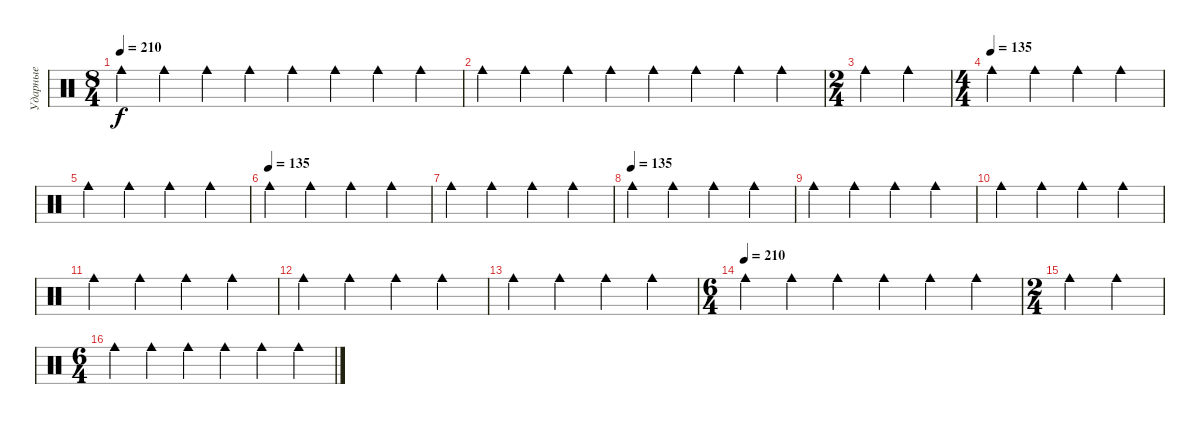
\track ("Ударные" "Ударные") {mute instrument percussion}
\staff {score}
\articulation defaults
\ts (8 4)
\tempo 210
\clef neutral
\ks c "Cowbell medium (hit)".4{dy f} "Cowbell medium (hit)".4 "Cowbell medium (hit)".4 "Cowbell medium (hit)".4 "Cowbell medium (hit)".4 "Cowbell medium (hit)".4 "Cowbell medium (hit)".4 "Cowbell medium (hit)".4
|
"Cowbell medium (hit)".4 "Cowbell medium (hit)".4 "Cowbell medium (hit)".4 "Cowbell medium (hit)".4 "Cowbell medium (hit)".4 "Cowbell medium (hit)".4 "Cowbell medium (hit)".4 "Cowbell medium (hit)".4 |
\ts (2 4)
"Cowbell medium (hit)".4 "Cowbell medium (hit)".4 |
\ts (4 4)
\tempo (135)
"Cowbell medium (hit)".4 "Cowbell medium (hit)".4 "Cowbell medium (hit)".4 "Cowbell medium (hit)".4 |
"Cowbell medium (hit)".4 "Cowbell medium (hit)".4 "Cowbell medium (hit)".4 "Cowbell medium (hit)".4 |
\tempo (135)
"Cowbell medium (hit)".4 "Cowbell medium (hit)".4 "Cowbell medium (hit)".4 "Cowbell medium (hit)".4 |
"Cowbell medium (hit)".4 "Cowbell medium (hit)".4 "Cowbell medium (hit)".4 "Cowbell medium (hit)".4 |
\tempo (135)
"Cowbell medium (hit)".4 "Cowbell medium (hit)".4 "Cowbell medium (hit)".4 "Cowbell medium (hit)".4 |
"Cowbell medium (hit)".4 "Cowbell medium (hit)".4 "Cowbell medium (hit)".4 "Cowbell medium (hit)".4 |
"Cowbell medium (hit)".4 "Cowbell medium (hit)".4 "Cowbell medium (hit)".4 "Cowbell medium (hit)".4 |
"Cowbell medium (hit)".4 "Cowbell medium (hit)".4 "Cowbell medium (hit)".4 "Cowbell medium (hit)".4 |
"Cowbell medium (hit)".4 "Cowbell medium (hit)".4 "Cowbell medium (hit)".4 "Cowbell medium (hit)".4 |
"Cowbell medium (hit)".4 "Cowbell medium (hit)".4 "Cowbell medium (hit)".4 "Cowbell medium (hit)".4 |
\ts (6 4)
\tempo (210)
"Cowbell medium (hit)".4 "Cowbell medium (hit)".4 "Cowbell medium (hit)".4 "Cowbell medium (hit)".4 "Cowbell medium (hit)".4 "Cowbell medium (hit)".4 |
\ts (2 4)
"Cowbell medium (hit)".4 "Cowbell medium (hit)".4 |
\ts (6 4)
"Cowbell medium (hit)".4 "Cowbell medium (hit)".4 "Cowbell medium (hit)".4 "Cowbell medium (hit)".4 "Cowbell medium (hit)".4 "Cowbell medium (hit)".4
